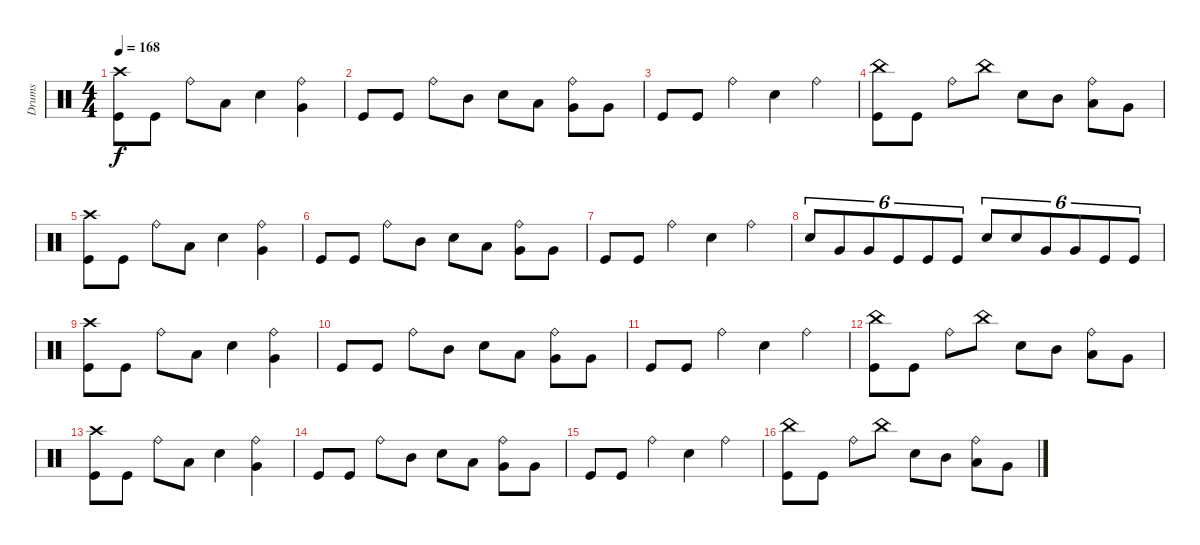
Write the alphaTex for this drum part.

\track ("Drums" "Drums") {instrument percussion}
\staff {score}
\articulation defaults
\ts (4 4)
\tempo 168
\clef neutral
\ks c
("Crash high (hit)" "Kick (hit)").8{dy f} "Kick (hit)".8 "Ride (bell)".8 "Low Tom (hit)".8 "Electric Snare (hit)".4 ("Ride (bell)" "Very Low Tom (hit)").4 |
"Kick (hit)".8 "Kick (hit)".8 "Ride (bell)".8 "Mid Tom (hit)".8 "Electric Snare (hit)".8 "Low Tom (hit)".8 ("Ride (bell)" "Very Low Tom (hit)").8 "Very Low Tom (hit)".8 |
"Kick (hit)".8 "Kick (hit)".8 "Ride (bell)".4 "Electric Snare (hit)".4 "Ride (bell)".4 |
("China (hit)" "Kick (hit)").8 "Kick (hit)".8 "Ride (bell)".8 "China (hit)".8 "Electric Snare (hit)".8 "Mid Tom (hit)".8 ("Ride (bell)" "Low Tom (hit)").8 "Very Low Tom (hit)".8 |
("Crash high (hit)" "Kick (hit)").8 "Kick (hit)".8 "Ride (bell)".8 "Low Tom (hit)".8 "Electric Snare (hit)".4 ("Ride (bell)" "Very Low Tom (hit)").4 |
"Kick (hit)".8 "Kick (hit)".8 "Ride (bell)".8 "Mid Tom (hit)".8 "Electric Snare (hit)".8 "Low Tom (hit)".8 ("Ride (bell)" "Very Low Tom (hit)").8 "Very Low Tom (hit)".8 |
"Kick (hit)".8 "Kick (hit)".8 "Ride (bell)".4 "Electric Snare (hit)".4 "Ride (bell)".4 |
"Electric Snare (hit)".8{tu (6 4)} "Very Low Tom (hit)".8{tu (6 4)} "Very Low Tom (hit)".8{tu (6 4)} "Kick (hit)".8{tu (6 4)} "Kick (hit)".8{tu (6 4)} "Kick (hit)".8{tu (6 4)} "Electric Snare (hit)".8{tu (6 4)} "Electric Snare (hit)".8{tu (6 4)} "Very Low Tom (hit)".8{tu (6 4)} "Very Low Tom (hit)".8{tu (6 4)} "Kick (hit)".8{tu (6 4)} "Kick (hit)".8{tu (6 4)} |
("Crash high (hit)" "Kick (hit)").8 "Kick (hit)".8 "Ride (bell)".8 "Low Tom (hit)".8 "Electric Snare (hit)".4 ("Ride (bell)" "Very Low Tom (hit)").4 |
"Kick (hit)".8 "Kick (hit)".8 "Ride (bell)".8 "Mid Tom (hit)".8 "Electric Snare (hit)".8 "Low Tom (hit)".8 ("Ride (bell)" "Very Low Tom (hit)").8 "Very Low Tom (hit)".8 |
"Kick (hit)".8 "Kick (hit)".8 "Ride (bell)".4 "Electric Snare (hit)".4 "Ride (bell)".4 |
("China (hit)" "Kick (hit)").8 "Kick (hit)".8 "Ride (bell)".8 "China (hit)".8 "Electric Snare (hit)".8 "Mid Tom (hit)".8 ("Ride (bell)" "Low Tom (hit)").8 "Very Low Tom (hit)".8 |
("Crash high (hit)" "Kick (hit)").8 "Kick (hit)".8 "Ride (bell)".8 "Low Tom (hit)".8 "Electric Snare (hit)".4 ("Ride (bell)" "Very Low Tom (hit)").4 |
"Kick (hit)".8 "Kick (hit)".8 "Ride (bell)".8 "Mid Tom (hit)".8 "Electric Snare (hit)".8 "Low Tom (hit)".8 ("Ride (bell)" "Very Low Tom (hit)").8 "Very Low Tom (hit)".8 |
"Kick (hit)".8 "Kick (hit)".8 "Ride (bell)".4 "Electric Snare (hit)".4 "Ride (bell)".4 |
("China (hit)" "Kick (hit)").8 "Kick (hit)".8 "Ride (bell)".8 "China (hit)".8 "Electric Snare (hit)".8 "Mid Tom (hit)".8 ("Ride (bell)" "Low Tom (hit)").8 "Very Low Tom (hit)".8
